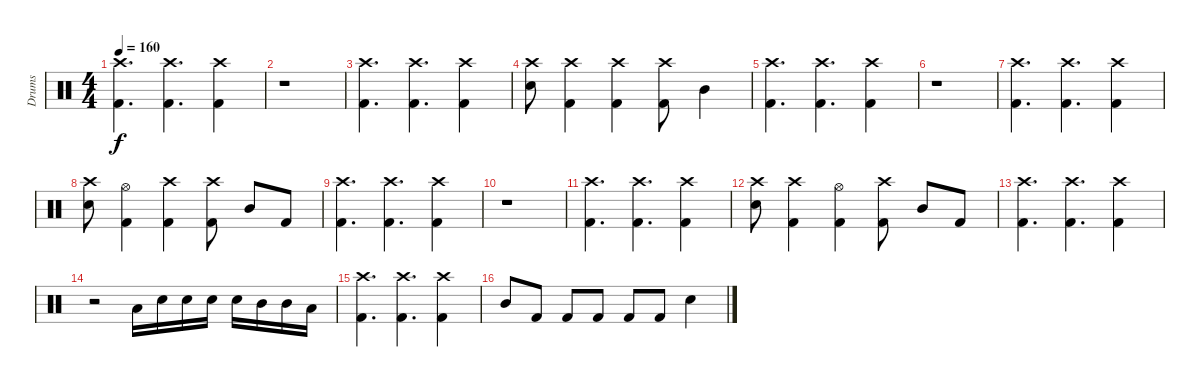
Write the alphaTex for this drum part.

\track ("Drums" "Drums") {instrument percussion}
\staff {score}
\articulation defaults
\ts (4 4)
\tempo 160
\clef neutral
\ks c
("Crash high (hit)" "Kick (hit) 2").4{d dy f} ("Crash high (hit)" "Kick (hit) 2").4{d} ("Crash high (hit)" "Kick (hit) 2").4 |
r.1 |
("Crash high (hit)" "Kick (hit) 2").4{d} ("Crash high (hit)" "Kick (hit) 2").4{d} ("Crash high (hit)" "Kick (hit) 2").4 |
("Crash high (hit)" "Electric Snare (hit)").8 ("Crash high (hit)" "Kick (hit) 2").4 ("Crash high (hit)" "Kick (hit) 2").4 ("Crash high (hit)" "Kick (hit) 2").8 "Mid Tom (hit)".4 |
("Crash high (hit)" "Kick (hit) 2").4{d} ("Crash high (hit)" "Kick (hit) 2").4{d} ("Crash high (hit)" "Kick (hit) 2").4 |
r.1 |
("Crash high (hit)" "Kick (hit) 2").4{d} ("Crash high (hit)" "Kick (hit) 2").4{d} ("Crash high (hit)" "Kick (hit) 2").4 |
("Crash high (hit)" "Electric Snare (hit)").8 ("Hi-Hat (open)" "Kick (hit) 2").4 ("Crash high (hit)" "Kick (hit) 2").4 ("Crash high (hit)" "Kick (hit) 2").8 "Mid Tom (hit)".8 "Kick (hit) 2".8 |
("Crash high (hit)" "Kick (hit) 2").4{d} ("Crash high (hit)" "Kick (hit) 2").4{d} ("Crash high (hit)" "Kick (hit) 2").4 |
r.1 |
("Crash high (hit)" "Kick (hit) 2").4{d} ("Crash high (hit)" "Kick (hit) 2").4{d} ("Crash high (hit)" "Kick (hit) 2").4 |
("Crash high (hit)" "Electric Snare (hit)").8 ("Crash high (hit)" "Kick (hit) 2").4 ("Hi-Hat (open)" "Kick (hit) 2").4 ("Crash high (hit)" "Kick (hit) 2").8 "Mid Tom (hit)".8 "Kick (hit) 2".8 |
("Crash high (hit)" "Kick (hit) 2").4{d} ("Crash high (hit)" "Kick (hit) 2").4{d} ("Crash high (hit)" "Kick (hit) 2").4 |
r.2 "Low Tom (hit)".16 "Electric Snare (hit)".16 "Electric Snare (hit)".16 "Electric Snare (hit)".16 "Electric Snare (hit)".16 "Mid Tom (hit)".16 "Mid Tom (hit)".16 "Low Tom (hit)".16 |
("Crash high (hit)" "Kick (hit) 2").4{d} ("Crash high (hit)" "Kick (hit) 2").4{d} ("Crash high (hit)" "Kick (hit) 2").4 |
"Mid Tom (hit)".8 "Kick (hit) 2".8 "Kick (hit) 2".8 "Kick (hit) 2".8 "Kick (hit) 2".8 "Kick (hit) 2".8 "Electric Snare (hit)".4
